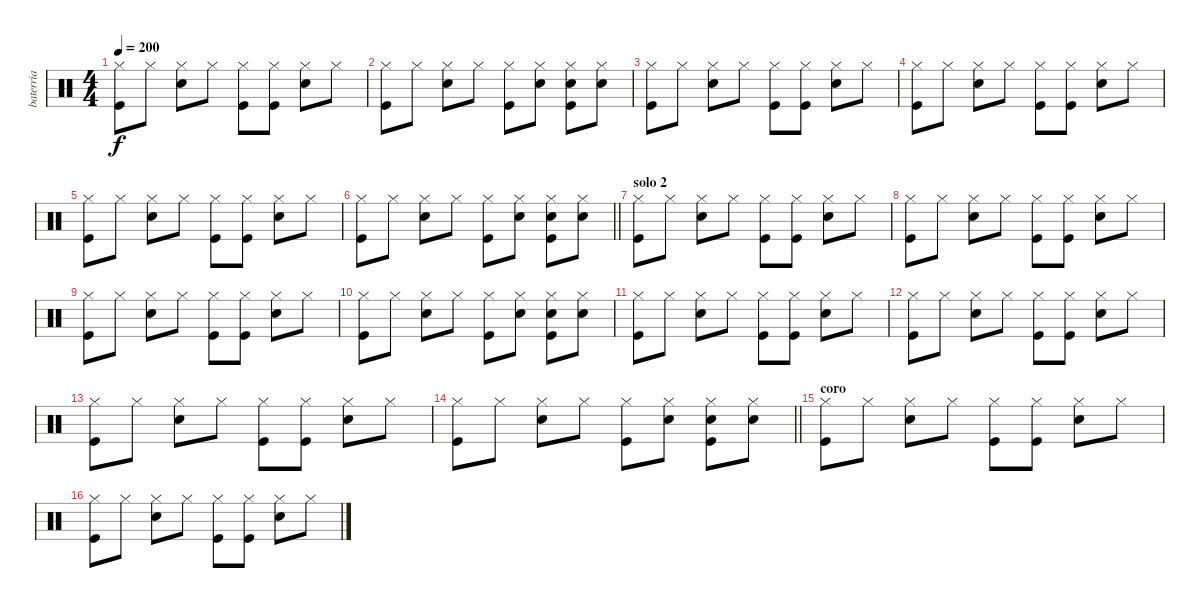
\track ("baterria" "baterria") {instrument percussion}
\staff {score}
\articulation defaults
\ts (4 4)
\tempo 200
\clef neutral
\ks c
("Hi-Hat (closed)" "Kick (hit)").8{dy f} "Hi-Hat (closed)".8 ("Hi-Hat (closed)" "Electric Snare (hit)").8 "Hi-Hat (closed)".8 ("Hi-Hat (closed)" "Kick (hit)").8 ("Hi-Hat (closed)" "Kick (hit)").8 ("Hi-Hat (closed)" "Electric Snare (hit)").8 "Hi-Hat (closed)".8 |
("Hi-Hat (closed)" "Kick (hit)").8 "Hi-Hat (closed)".8 ("Hi-Hat (closed)" "Electric Snare (hit)").8 "Hi-Hat (closed)".8 ("Hi-Hat (closed)" "Kick (hit)").8 ("Hi-Hat (closed)" "Electric Snare (hit)").8 ("Hi-Hat (closed)" "Electric Snare (hit)" "Kick (hit)").8 ("Hi-Hat (closed)" "Electric Snare (hit)").8 |
("Hi-Hat (closed)" "Kick (hit)").8 "Hi-Hat (closed)".8 ("Hi-Hat (closed)" "Electric Snare (hit)").8 "Hi-Hat (closed)".8 ("Hi-Hat (closed)" "Kick (hit)").8 ("Hi-Hat (closed)" "Kick (hit)").8 ("Hi-Hat (closed)" "Electric Snare (hit)").8 "Hi-Hat (closed)".8 |
("Hi-Hat (closed)" "Kick (hit)").8 "Hi-Hat (closed)".8 ("Hi-Hat (closed)" "Electric Snare (hit)").8 "Hi-Hat (closed)".8 ("Hi-Hat (closed)" "Kick (hit)").8 ("Hi-Hat (closed)" "Kick (hit)").8 ("Hi-Hat (closed)" "Electric Snare (hit)").8 "Hi-Hat (closed)".8 |
("Hi-Hat (closed)" "Kick (hit)").8 "Hi-Hat (closed)".8 ("Hi-Hat (closed)" "Electric Snare (hit)").8 "Hi-Hat (closed)".8 ("Hi-Hat (closed)" "Kick (hit)").8 ("Hi-Hat (closed)" "Kick (hit)").8 ("Hi-Hat (closed)" "Electric Snare (hit)").8 "Hi-Hat (closed)".8 |
\barLineRight lightlight
("Hi-Hat (closed)" "Kick (hit)").8 "Hi-Hat (closed)".8 ("Hi-Hat (closed)" "Electric Snare (hit)").8 "Hi-Hat (closed)".8 ("Hi-Hat (closed)" "Kick (hit)").8 ("Hi-Hat (closed)" "Electric Snare (hit)").8 ("Hi-Hat (closed)" "Electric Snare (hit)" "Kick (hit)").8 ("Hi-Hat (closed)" "Electric Snare (hit)").8 |
\section ("" "solo 2")
("Hi-Hat (closed)" "Kick (hit)").8 "Hi-Hat (closed)".8 ("Hi-Hat (closed)" "Electric Snare (hit)").8 "Hi-Hat (closed)".8 ("Hi-Hat (closed)" "Kick (hit)").8 ("Hi-Hat (closed)" "Kick (hit)").8 ("Hi-Hat (closed)" "Electric Snare (hit)").8 "Hi-Hat (closed)".8 |
("Hi-Hat (closed)" "Kick (hit)").8 "Hi-Hat (closed)".8 ("Hi-Hat (closed)" "Electric Snare (hit)").8 "Hi-Hat (closed)".8 ("Hi-Hat (closed)" "Kick (hit)").8 ("Hi-Hat (closed)" "Kick (hit)").8 ("Hi-Hat (closed)" "Electric Snare (hit)").8 "Hi-Hat (closed)".8 |
("Hi-Hat (closed)" "Kick (hit)").8 "Hi-Hat (closed)".8 ("Hi-Hat (closed)" "Electric Snare (hit)").8 "Hi-Hat (closed)".8 ("Hi-Hat (closed)" "Kick (hit)").8 ("Hi-Hat (closed)" "Kick (hit)").8 ("Hi-Hat (closed)" "Electric Snare (hit)").8 "Hi-Hat (closed)".8 |
("Hi-Hat (closed)" "Kick (hit)").8 "Hi-Hat (closed)".8 ("Hi-Hat (closed)" "Electric Snare (hit)").8 "Hi-Hat (closed)".8 ("Hi-Hat (closed)" "Kick (hit)").8 ("Hi-Hat (closed)" "Electric Snare (hit)").8 ("Hi-Hat (closed)" "Electric Snare (hit)" "Kick (hit)").8 ("Hi-Hat (closed)" "Electric Snare (hit)").8 |
("Hi-Hat (closed)" "Kick (hit)").8 "Hi-Hat (closed)".8 ("Hi-Hat (closed)" "Electric Snare (hit)").8 "Hi-Hat (closed)".8 ("Hi-Hat (closed)" "Kick (hit)").8 ("Hi-Hat (closed)" "Kick (hit)").8 ("Hi-Hat (closed)" "Electric Snare (hit)").8 "Hi-Hat (closed)".8 |
("Hi-Hat (closed)" "Kick (hit)").8 "Hi-Hat (closed)".8 ("Hi-Hat (closed)" "Electric Snare (hit)").8 "Hi-Hat (closed)".8 ("Hi-Hat (closed)" "Kick (hit)").8 ("Hi-Hat (closed)" "Kick (hit)").8 ("Hi-Hat (closed)" "Electric Snare (hit)").8 "Hi-Hat (closed)".8 |
("Hi-Hat (closed)" "Kick (hit)").8 "Hi-Hat (closed)".8 ("Hi-Hat (closed)" "Electric Snare (hit)").8 "Hi-Hat (closed)".8 ("Hi-Hat (closed)" "Kick (hit)").8 ("Hi-Hat (closed)" "Kick (hit)").8 ("Hi-Hat (closed)" "Electric Snare (hit)").8 "Hi-Hat (closed)".8 |
\barLineRight lightlight
("Hi-Hat (closed)" "Kick (hit)").8 "Hi-Hat (closed)".8 ("Hi-Hat (closed)" "Electric Snare (hit)").8 "Hi-Hat (closed)".8 ("Hi-Hat (closed)" "Kick (hit)").8 ("Hi-Hat (closed)" "Electric Snare (hit)").8 ("Hi-Hat (closed)" "Electric Snare (hit)" "Kick (hit)").8 ("Hi-Hat (closed)" "Electric Snare (hit)").8 |
\section ("" "coro")
("Hi-Hat (closed)" "Kick (hit)").8 "Hi-Hat (closed)".8 ("Hi-Hat (closed)" "Electric Snare (hit)").8 "Hi-Hat (closed)".8 ("Hi-Hat (closed)" "Kick (hit)").8 ("Hi-Hat (closed)" "Kick (hit)").8 ("Hi-Hat (closed)" "Electric Snare (hit)").8 "Hi-Hat (closed)".8 |
("Hi-Hat (closed)" "Kick (hit)").8 "Hi-Hat (closed)".8 ("Hi-Hat (closed)" "Electric Snare (hit)").8 "Hi-Hat (closed)".8 ("Hi-Hat (closed)" "Kick (hit)").8 ("Hi-Hat (closed)" "Kick (hit)").8 ("Hi-Hat (closed)" "Electric Snare (hit)").8 "Hi-Hat (closed)".8
